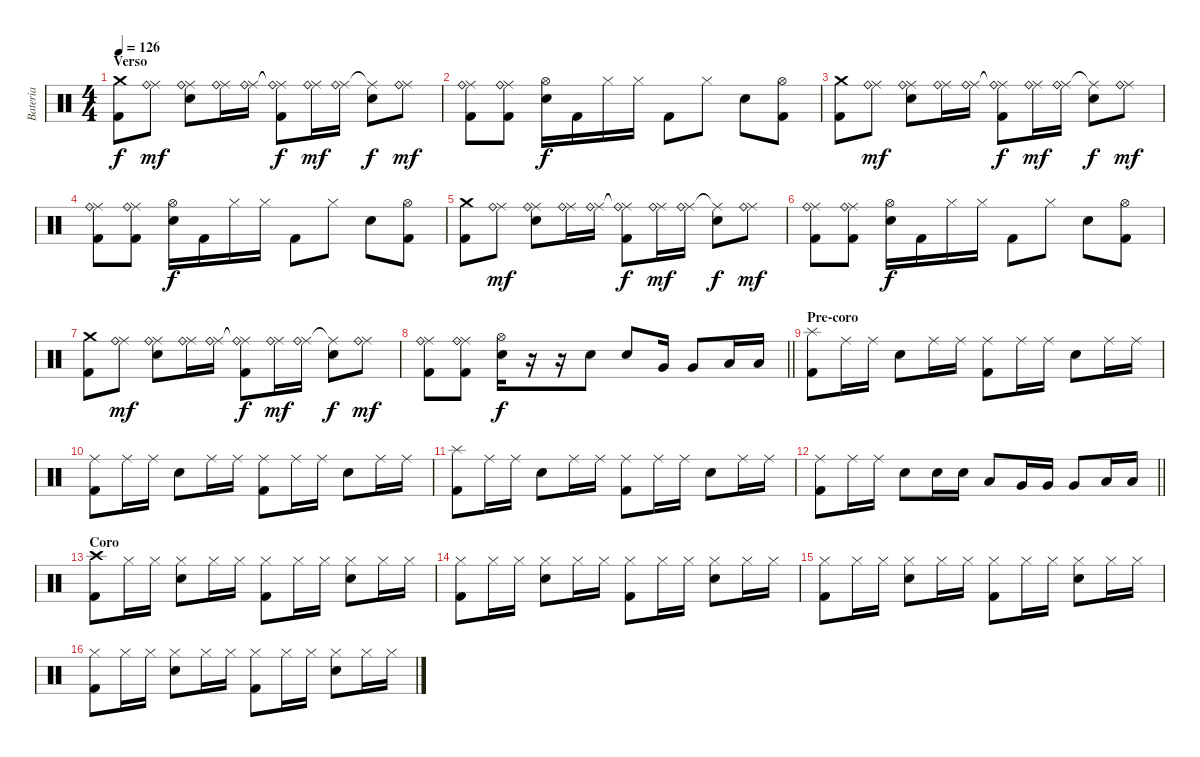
\track ("Bateria" "Bateria") {instrument percussion}
\staff {score}
\articulation defaults
\ts (4 4)
\section ("" "Verso")
\tempo 126
\clef neutral
\ks c
("Crash medium (hit)" "Kick (hit) 2").8{dy f} ("Ride (middle)" "Ride (bell)").8{dy mf} ("Ride (middle)" "Ride (bell)" "Electric Snare (hit)").8 ("Ride (middle)" "Ride (bell)").16 ("Ride (middle)" "Ride (bell)").16 ("Ride (middle)"{t} "Ride (bell)"{t} "Kick (hit) 2").8{dy f} ("Ride (middle)" "Ride (bell)").16{dy mf} ("Ride (middle)" "Ride (bell)").16 ("Ride (middle)"{t} "Electric Snare (hit)").8{dy f} ("Ride (middle)" "Ride (bell)").8{dy mf} |
("Ride (middle)" "Ride (bell)" "Kick (hit) 2").8 ("Ride (middle)" "Ride (bell)" "Kick (hit) 2").8 ("Hi-Hat (open)" "Electric Snare (hit)").16{dy f} "Kick (hit) 2".16 "Hi-Hat (closed)".16 "Hi-Hat (closed)".16 "Kick (hit) 2".8 "Hi-Hat (closed)".8 "Electric Snare (hit)".8 ("Hi-Hat (open)" "Kick (hit) 2").8 |
("Crash medium (hit)" "Kick (hit) 2").8 ("Ride (middle)" "Ride (bell)").8{dy mf} ("Ride (middle)" "Ride (bell)" "Electric Snare (hit)").8 ("Ride (middle)" "Ride (bell)").16 ("Ride (middle)" "Ride (bell)").16 ("Ride (middle)"{t} "Ride (bell)"{t} "Kick (hit) 2").8{dy f} ("Ride (middle)" "Ride (bell)").16{dy mf} ("Ride (middle)" "Ride (bell)").16 ("Ride (middle)"{t} "Electric Snare (hit)").8{dy f} ("Ride (middle)" "Ride (bell)").8{dy mf} |
("Ride (middle)" "Ride (bell)" "Kick (hit) 2").8 ("Ride (middle)" "Ride (bell)" "Kick (hit) 2").8 ("Hi-Hat (open)" "Electric Snare (hit)").16{dy f} "Kick (hit) 2".16 "Hi-Hat (closed)".16 "Hi-Hat (closed)".16 "Kick (hit) 2".8 "Hi-Hat (closed)".8 "Electric Snare (hit)".8 ("Hi-Hat (open)" "Kick (hit) 2").8 |
("Crash medium (hit)" "Kick (hit) 2").8 ("Ride (middle)" "Ride (bell)").8{dy mf} ("Ride (middle)" "Ride (bell)" "Electric Snare (hit)").8 ("Ride (middle)" "Ride (bell)").16 ("Ride (middle)" "Ride (bell)").16 ("Ride (middle)"{t} "Ride (bell)"{t} "Kick (hit) 2").8{dy f} ("Ride (middle)" "Ride (bell)").16{dy mf} ("Ride (middle)" "Ride (bell)").16 ("Ride (middle)"{t} "Electric Snare (hit)").8{dy f} ("Ride (middle)" "Ride (bell)").8{dy mf} |
("Ride (middle)" "Ride (bell)" "Kick (hit) 2").8 ("Ride (middle)" "Ride (bell)" "Kick (hit) 2").8 ("Hi-Hat (open)" "Electric Snare (hit)").16{dy f} "Kick (hit) 2".16 "Hi-Hat (closed)".16 "Hi-Hat (closed)".16 "Kick (hit) 2".8 "Hi-Hat (closed)".8 "Electric Snare (hit)".8 ("Hi-Hat (open)" "Kick (hit) 2").8 |
("Crash medium (hit)" "Kick (hit) 2").8 ("Ride (middle)" "Ride (bell)").8{dy mf} ("Ride (middle)" "Ride (bell)" "Electric Snare (hit)").8 ("Ride (middle)" "Ride (bell)").16 ("Ride (middle)" "Ride (bell)").16 ("Ride (middle)"{t} "Ride (bell)"{t} "Kick (hit) 2").8{dy f} ("Ride (middle)" "Ride (bell)").16{dy mf} ("Ride (middle)" "Ride (bell)").16 ("Ride (middle)"{t} "Electric Snare (hit)").8{dy f} ("Ride (middle)" "Ride (bell)").8{dy mf} |
\barLineRight lightlight
("Ride (middle)" "Ride (bell)" "Kick (hit) 2").8 ("Ride (middle)" "Ride (bell)" "Kick (hit) 2").8 ("Hi-Hat (open)" "Electric Snare (hit)").16{dy f} r.16 r.16 "Electric Snare (hit)".8 "Electric Snare (hit)".8 "Very Low Tom (hit)".16 "Very Low Tom (hit)".8 "Low Floor Tom (hit)".16 "Low Floor Tom (hit)".16 |
\section ("" "Pre-coro")
("Splash (hit)" "Kick (hit) 2").8 "Ride (middle)".16 "Ride (middle)".16 "Electric Snare (hit)".8 "Ride (middle)".16 "Ride (middle)".16 ("Ride (middle)" "Kick (hit) 2").8 "Ride (middle)".16 "Ride (middle)".16 "Electric Snare (hit)".8 "Ride (middle)".16 "Ride (middle)".16 |
("Ride (middle)" "Kick (hit) 2").8 "Ride (middle)".16 "Ride (middle)".16 "Electric Snare (hit)".8 "Ride (middle)".16 "Ride (middle)".16 ("Ride (middle)" "Kick (hit) 2").8 "Ride (middle)".16 "Ride (middle)".16 "Electric Snare (hit)".8 "Ride (middle)".16 "Ride (middle)".16 |
("Splash (hit)" "Kick (hit) 2").8 "Ride (middle)".16 "Ride (middle)".16 "Electric Snare (hit)".8 "Ride (middle)".16 "Ride (middle)".16 ("Ride (middle)" "Kick (hit) 2").8 "Ride (middle)".16 "Ride (middle)".16 "Electric Snare (hit)".8 "Ride (middle)".16 "Ride (middle)".16 |
\barLineRight lightlight
("Ride (middle)" "Kick (hit) 2").8 "Ride (middle)".16 "Ride (middle)".16 "Electric Snare (hit)".8 "Electric Snare (hit)".16 "Electric Snare (hit)".16 "Low Tom (hit)".8 "Very Low Tom (hit)".16 "Very Low Tom (hit)".16 "Very Low Tom (hit)".8 "Low Floor Tom (hit)".16 "Low Floor Tom (hit)".16 |
\section ("" "Coro")
("Crash high (hit)" "Kick (hit) 2").8 "Hi-Hat (closed)".16 "Hi-Hat (closed)".16 ("Hi-Hat (closed)" "Electric Snare (hit)").8 "Hi-Hat (closed)".16 "Hi-Hat (closed)".16 ("Hi-Hat (closed)" "Kick (hit) 2").8 "Hi-Hat (closed)".16 "Hi-Hat (closed)".16 ("Hi-Hat (closed)" "Electric Snare (hit)").8 "Hi-Hat (closed)".16 "Hi-Hat (closed)".16 |
("Hi-Hat (closed)" "Kick (hit) 2").8 "Hi-Hat (closed)".16 "Hi-Hat (closed)".16 ("Hi-Hat (closed)" "Electric Snare (hit)").8 "Hi-Hat (closed)".16 "Hi-Hat (closed)".16 ("Hi-Hat (closed)" "Kick (hit) 2").8 "Hi-Hat (closed)".16 "Hi-Hat (closed)".16 ("Hi-Hat (closed)" "Electric Snare (hit)").8 "Hi-Hat (closed)".16 "Hi-Hat (closed)".16 |
("Hi-Hat (closed)" "Kick (hit) 2").8 "Hi-Hat (closed)".16 "Hi-Hat (closed)".16 ("Hi-Hat (closed)" "Electric Snare (hit)").8 "Hi-Hat (closed)".16 "Hi-Hat (closed)".16 ("Hi-Hat (closed)" "Kick (hit) 2").8 "Hi-Hat (closed)".16 "Hi-Hat (closed)".16 ("Hi-Hat (closed)" "Electric Snare (hit)").8 "Hi-Hat (closed)".16 "Hi-Hat (closed)".16 |
("Hi-Hat (closed)" "Kick (hit) 2").8 "Hi-Hat (closed)".16 "Hi-Hat (closed)".16 ("Hi-Hat (closed)" "Electric Snare (hit)").8 "Hi-Hat (closed)".16 "Hi-Hat (closed)".16 ("Hi-Hat (closed)" "Kick (hit) 2").8 "Hi-Hat (closed)".16 "Hi-Hat (closed)".16 ("Hi-Hat (closed)" "Electric Snare (hit)").8 "Hi-Hat (closed)".16 "Hi-Hat (closed)".16
